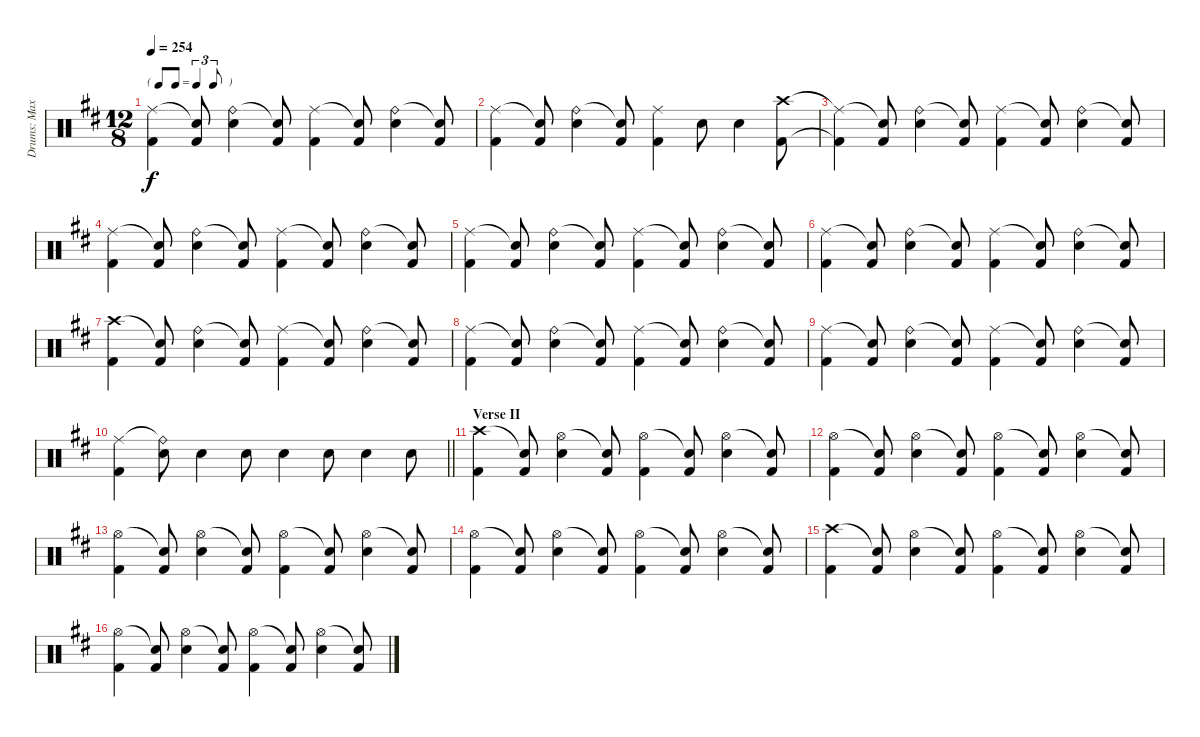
\track ("Drums: Max" "Drums: Max") {instrument percussion}
\staff {score}
\articulation defaults
\ts (12 8)
\tf triplet8th
\tempo 254
\clef neutral
\ks d
("Ride (middle)" "Kick (hit) 2").4{dy f} ("Snare (hit)"{t} "Kick (hit) 2").8 ("Ride (bell)" "Electric Snare (hit)").4 ("Snare (hit)"{t} "Kick (hit) 2").8 ("Ride (middle)" "Kick (hit) 2").4 ("Snare (hit)"{t} "Kick (hit) 2").8 ("Ride (bell)" "Electric Snare (hit)").4 ("Snare (hit)"{t} "Kick (hit) 2").8 |
("Ride (middle)" "Kick (hit) 2").4 ("Snare (hit)"{t} "Kick (hit) 2").8 ("Ride (bell)" "Electric Snare (hit)").4 ("Snare (hit)"{t} "Kick (hit) 2").8 ("Ride (middle)" "Kick (hit) 2").4 "Electric Snare (hit)".8 "Electric Snare (hit)".4 ("Crash high (hit)" "Kick (hit) 2").8 |
("Ride (middle)"{t} "Kick (hit) 2"{t}).4 ("Snare (hit)"{t} "Kick (hit) 2").8 ("Ride (bell)" "Electric Snare (hit)").4 ("Snare (hit)"{t} "Kick (hit) 2").8 ("Ride (middle)" "Kick (hit) 2").4 ("Snare (hit)"{t} "Kick (hit) 2").8 ("Ride (bell)" "Electric Snare (hit)").4 ("Snare (hit)"{t} "Kick (hit) 2").8 |
("Ride (middle)" "Kick (hit) 2").4 ("Snare (hit)"{t} "Kick (hit) 2").8 ("Ride (bell)" "Electric Snare (hit)").4 ("Snare (hit)"{t} "Kick (hit) 2").8 ("Ride (middle)" "Kick (hit) 2").4 ("Snare (hit)"{t} "Kick (hit) 2").8 ("Ride (bell)" "Electric Snare (hit)").4 ("Snare (hit)"{t} "Kick (hit) 2").8 |
("Ride (middle)" "Kick (hit) 2").4 ("Snare (hit)"{t} "Kick (hit) 2").8 ("Ride (bell)" "Electric Snare (hit)").4 ("Snare (hit)"{t} "Kick (hit) 2").8 ("Ride (middle)" "Kick (hit) 2").4 ("Snare (hit)"{t} "Kick (hit) 2").8 ("Ride (bell)" "Electric Snare (hit)").4 ("Snare (hit)"{t} "Kick (hit) 2").8 |
("Ride (middle)" "Kick (hit) 2").4 ("Snare (hit)"{t} "Kick (hit) 2").8 ("Ride (bell)" "Electric Snare (hit)").4 ("Snare (hit)"{t} "Kick (hit) 2").8 ("Ride (middle)" "Kick (hit) 2").4 ("Snare (hit)"{t} "Kick (hit) 2").8 ("Ride (bell)" "Electric Snare (hit)").4 ("Snare (hit)"{t} "Kick (hit) 2").8 |
("Crash high (hit)" "Kick (hit) 2").4 ("Snare (hit)"{t} "Kick (hit) 2").8 ("Ride (bell)" "Electric Snare (hit)").4 ("Snare (hit)"{t} "Kick (hit) 2").8 ("Ride (middle)" "Kick (hit) 2").4 ("Snare (hit)"{t} "Kick (hit) 2").8 ("Ride (bell)" "Electric Snare (hit)").4 ("Snare (hit)"{t} "Kick (hit) 2").8 |
("Ride (middle)" "Kick (hit) 2").4 ("Snare (hit)"{t} "Kick (hit) 2").8 ("Ride (bell)" "Electric Snare (hit)").4 ("Snare (hit)"{t} "Kick (hit) 2").8 ("Ride (middle)" "Kick (hit) 2").4 ("Snare (hit)"{t} "Kick (hit) 2").8 ("Ride (bell)" "Electric Snare (hit)").4 ("Snare (hit)"{t} "Kick (hit) 2").8 |
("Ride (middle)" "Kick (hit) 2").4 ("Snare (hit)"{t} "Kick (hit) 2").8 ("Ride (bell)" "Electric Snare (hit)").4 ("Snare (hit)"{t} "Kick (hit) 2").8 ("Ride (middle)" "Kick (hit) 2").4 ("Snare (hit)"{t} "Kick (hit) 2").8 ("Ride (bell)" "Electric Snare (hit)").4 ("Snare (hit)"{t} "Kick (hit) 2").8 |
\barLineRight lightlight
("Ride (middle)" "Kick (hit) 2").4 ("Ride (bell)"{t} "Electric Snare (hit)").8 "Electric Snare (hit)".4 "Electric Snare (hit)".8 "Electric Snare (hit)".4 "Electric Snare (hit)".8 "Electric Snare (hit)".4 "Electric Snare (hit)".8 |
\section ("" "Verse II")
("Crash high (hit)" "Kick (hit) 2").4 ("Snare (hit)"{t} "Kick (hit) 2").8 ("Hi-Hat (open)" "Electric Snare (hit)").4 ("Snare (hit)"{t} "Kick (hit) 2").8 ("Hi-Hat (open)" "Kick (hit) 2").4 ("Snare (hit)"{t} "Kick (hit) 2").8 ("Hi-Hat (open)" "Electric Snare (hit)").4 ("Snare (hit)"{t} "Kick (hit) 2").8 |
("Hi-Hat (open)" "Kick (hit) 2").4 ("Snare (hit)"{t} "Kick (hit) 2").8 ("Hi-Hat (open)" "Electric Snare (hit)").4 ("Snare (hit)"{t} "Kick (hit) 2").8 ("Hi-Hat (open)" "Kick (hit) 2").4 ("Snare (hit)"{t} "Kick (hit) 2").8 ("Hi-Hat (open)" "Electric Snare (hit)").4 ("Snare (hit)"{t} "Kick (hit) 2").8 |
("Hi-Hat (open)" "Kick (hit) 2").4 ("Snare (hit)"{t} "Kick (hit) 2").8 ("Hi-Hat (open)" "Electric Snare (hit)").4 ("Snare (hit)"{t} "Kick (hit) 2").8 ("Hi-Hat (open)" "Kick (hit) 2").4 ("Snare (hit)"{t} "Kick (hit) 2").8 ("Hi-Hat (open)" "Electric Snare (hit)").4 ("Snare (hit)"{t} "Kick (hit) 2").8 |
("Hi-Hat (open)" "Kick (hit) 2").4 ("Snare (hit)"{t} "Kick (hit) 2").8 ("Hi-Hat (open)" "Electric Snare (hit)").4 ("Snare (hit)"{t} "Kick (hit) 2").8 ("Hi-Hat (open)" "Kick (hit) 2").4 ("Snare (hit)"{t} "Kick (hit) 2").8 ("Hi-Hat (open)" "Electric Snare (hit)").4 ("Snare (hit)"{t} "Kick (hit) 2").8 |
("Crash high (hit)" "Kick (hit) 2").4 ("Snare (hit)"{t} "Kick (hit) 2").8 ("Hi-Hat (open)" "Electric Snare (hit)").4 ("Snare (hit)"{t} "Kick (hit) 2").8 ("Hi-Hat (open)" "Kick (hit) 2").4 ("Snare (hit)"{t} "Kick (hit) 2").8 ("Hi-Hat (open)" "Electric Snare (hit)").4 ("Snare (hit)"{t} "Kick (hit) 2").8 |
("Hi-Hat (open)" "Kick (hit) 2").4 ("Snare (hit)"{t} "Kick (hit) 2").8 ("Hi-Hat (open)" "Electric Snare (hit)").4 ("Snare (hit)"{t} "Kick (hit) 2").8 ("Hi-Hat (open)" "Kick (hit) 2").4 ("Snare (hit)"{t} "Kick (hit) 2").8 ("Hi-Hat (open)" "Electric Snare (hit)").4 ("Snare (hit)"{t} "Kick (hit) 2").8
